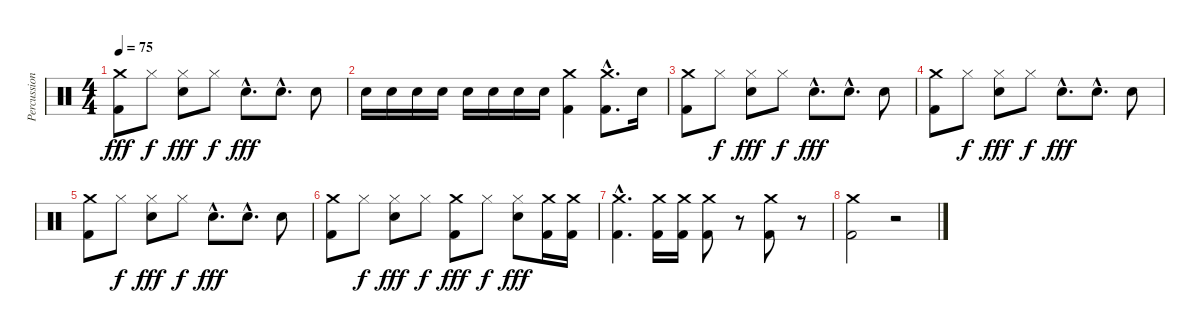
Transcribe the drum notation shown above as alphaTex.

\track ("Percussion" "Percussion") {instrument percussion}
\staff {score}
\articulation defaults
\ts (4 4)
\tempo 75
\clef neutral
\ks c
("Crash medium (hit)" "Kick (hit) 2").8{dy fff} "Hi-Hat (closed)".8{dy f} ("Hi-Hat (closed)" "Electric Snare (hit)").8{dy fff} "Hi-Hat (closed)".8{dy f} "Electric Snare (hit)"{hac}.8{d dy fff} "Electric Snare (hit)"{hac}.8{d} "Electric Snare (hit)".8 |
"Electric Snare (hit)".16 "Electric Snare (hit)".16 "Electric Snare (hit)".16 "Electric Snare (hit)".16 "Electric Snare (hit)".16 "Electric Snare (hit)".16 "Electric Snare (hit)".16 "Electric Snare (hit)".16 ("Crash medium (hit)" "Kick (hit) 2").4 ("Crash medium (hit)"{hac} "Kick (hit) 2"{hac}).8{d} "Electric Snare (hit)".16 |
("Crash medium (hit)" "Kick (hit) 2").8 "Hi-Hat (closed)".8{dy f} ("Hi-Hat (closed)" "Electric Snare (hit)").8{dy fff} "Hi-Hat (closed)".8{dy f} "Electric Snare (hit)"{hac}.8{d dy fff} "Electric Snare (hit)"{hac}.8{d} "Electric Snare (hit)".8 |
("Crash medium (hit)" "Kick (hit) 2").8 "Hi-Hat (closed)".8{dy f} ("Hi-Hat (closed)" "Electric Snare (hit)").8{dy fff} "Hi-Hat (closed)".8{dy f} "Electric Snare (hit)"{hac}.8{d dy fff} "Electric Snare (hit)"{hac}.8{d} "Electric Snare (hit)".8 |
("Crash medium (hit)" "Kick (hit) 2").8 "Hi-Hat (closed)".8{dy f} ("Hi-Hat (closed)" "Electric Snare (hit)").8{dy fff} "Hi-Hat (closed)".8{dy f} "Electric Snare (hit)"{hac}.8{d dy fff} "Electric Snare (hit)"{hac}.8{d} "Electric Snare (hit)".8 |
("Crash medium (hit)" "Kick (hit) 2").8 "Hi-Hat (closed)".8{dy f} ("Hi-Hat (closed)" "Electric Snare (hit)").8{dy fff} "Hi-Hat (closed)".8{dy f} ("Crash medium (hit)" "Kick (hit) 2").8{dy fff} "Hi-Hat (closed)".8{dy f} ("Hi-Hat (closed)" "Electric Snare (hit)").8{dy fff} ("Crash medium (hit)" "Kick (hit) 2").16 ("Crash medium (hit)" "Kick (hit) 2").16 |
("Crash medium (hit)"{hac} "Kick (hit) 2"{hac}).4{d} ("Crash medium (hit)" "Kick (hit) 2").16 ("Crash medium (hit)" "Kick (hit) 2").16 ("Crash medium (hit)" "Kick (hit) 2").8 r.8 ("Crash medium (hit)" "Kick (hit) 2").8 r.8 |
("Crash medium (hit)" "Kick (hit) 2").2 r.2
